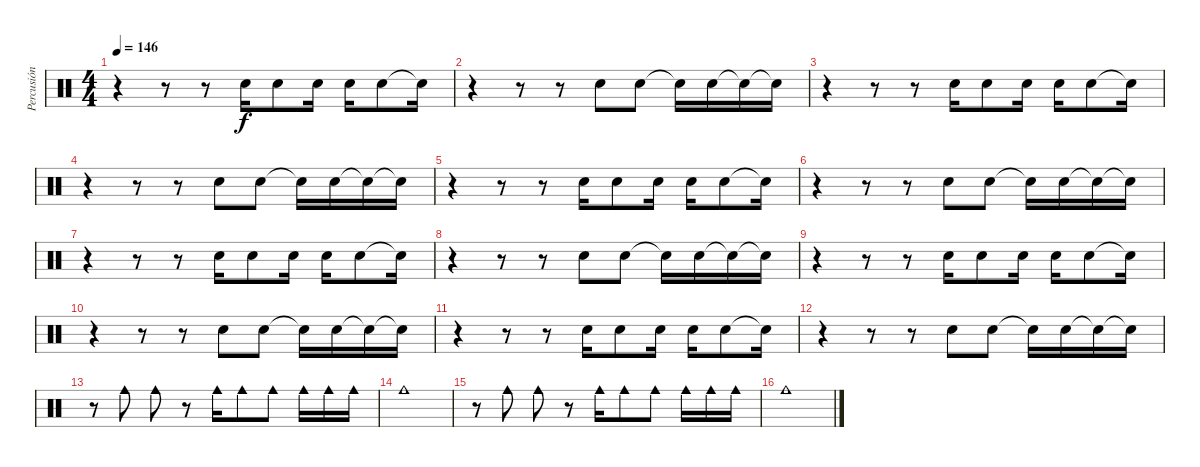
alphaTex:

\track ("Percusión" "Percusión") {instrument percussion}
\staff {score}
\articulation defaults
\ts (4 4)
\tempo 146
\clef neutral
\ks c
r.4{dy f} r.8 r.8 "Hand Clap (hit)".16 "Hand Clap (hit)".8 "Hand Clap (hit)".16 "Hand Clap (hit)".16 "Hand Clap (hit)".8 "Snare (hit)"{t}.16 |
r.4 r.8 r.8 "Hand Clap (hit)".8 "Hand Clap (hit)".8 "Snare (hit)"{t}.16 "Hand Clap (hit)".16 "Snare (hit)"{t}.16 "Snare (hit)"{t}.16 |
r.4 r.8 r.8 "Hand Clap (hit)".16 "Hand Clap (hit)".8 "Hand Clap (hit)".16 "Hand Clap (hit)".16 "Hand Clap (hit)".8 "Snare (hit)"{t}.16 |
r.4 r.8 r.8 "Hand Clap (hit)".8 "Hand Clap (hit)".8 "Snare (hit)"{t}.16 "Hand Clap (hit)".16 "Snare (hit)"{t}.16 "Snare (hit)"{t}.16 |
r.4 r.8 r.8 "Hand Clap (hit)".16 "Hand Clap (hit)".8 "Hand Clap (hit)".16 "Hand Clap (hit)".16 "Hand Clap (hit)".8 "Snare (hit)"{t}.16 |
r.4 r.8 r.8 "Hand Clap (hit)".8 "Hand Clap (hit)".8 "Snare (hit)"{t}.16 "Hand Clap (hit)".16 "Snare (hit)"{t}.16 "Snare (hit)"{t}.16 |
r.4 r.8 r.8 "Hand Clap (hit)".16 "Hand Clap (hit)".8 "Hand Clap (hit)".16 "Hand Clap (hit)".16 "Hand Clap (hit)".8 "Snare (hit)"{t}.16 |
r.4 r.8 r.8 "Hand Clap (hit)".8 "Hand Clap (hit)".8 "Snare (hit)"{t}.16 "Hand Clap (hit)".16 "Snare (hit)"{t}.16 "Snare (hit)"{t}.16 |
r.4 r.8 r.8 "Hand Clap (hit)".16 "Hand Clap (hit)".8 "Hand Clap (hit)".16 "Hand Clap (hit)".16 "Hand Clap (hit)".8 "Snare (hit)"{t}.16 |
r.4 r.8 r.8 "Hand Clap (hit)".8 "Hand Clap (hit)".8 "Snare (hit)"{t}.16 "Hand Clap (hit)".16 "Snare (hit)"{t}.16 "Snare (hit)"{t}.16 |
r.4 r.8 r.8 "Hand Clap (hit)".16 "Hand Clap (hit)".8 "Hand Clap (hit)".16 "Hand Clap (hit)".16 "Hand Clap (hit)".8 "Snare (hit)"{t}.16 |
r.4 r.8 r.8 "Hand Clap (hit)".8 "Hand Clap (hit)".8 "Snare (hit)"{t}.16 "Hand Clap (hit)".16 "Snare (hit)"{t}.16 "Snare (hit)"{t}.16 |
r.8 "Cowbell medium (hit)".8 "Cowbell medium (hit)".8 r.8 "Cowbell medium (hit)".16 "Cowbell medium (hit)".8 "Cowbell medium (hit)".8 "Cowbell medium (hit)".16 "Cowbell medium (hit)".16 "Cowbell medium (hit)".16 |
"Cowbell medium (hit)".1 |
r.8 "Cowbell medium (hit)".8 "Cowbell medium (hit)".8 r.8 "Cowbell medium (hit)".16 "Cowbell medium (hit)".8 "Cowbell medium (hit)".8 "Cowbell medium (hit)".16 "Cowbell medium (hit)".16 "Cowbell medium (hit)".16 |
"Cowbell medium (hit)".1
